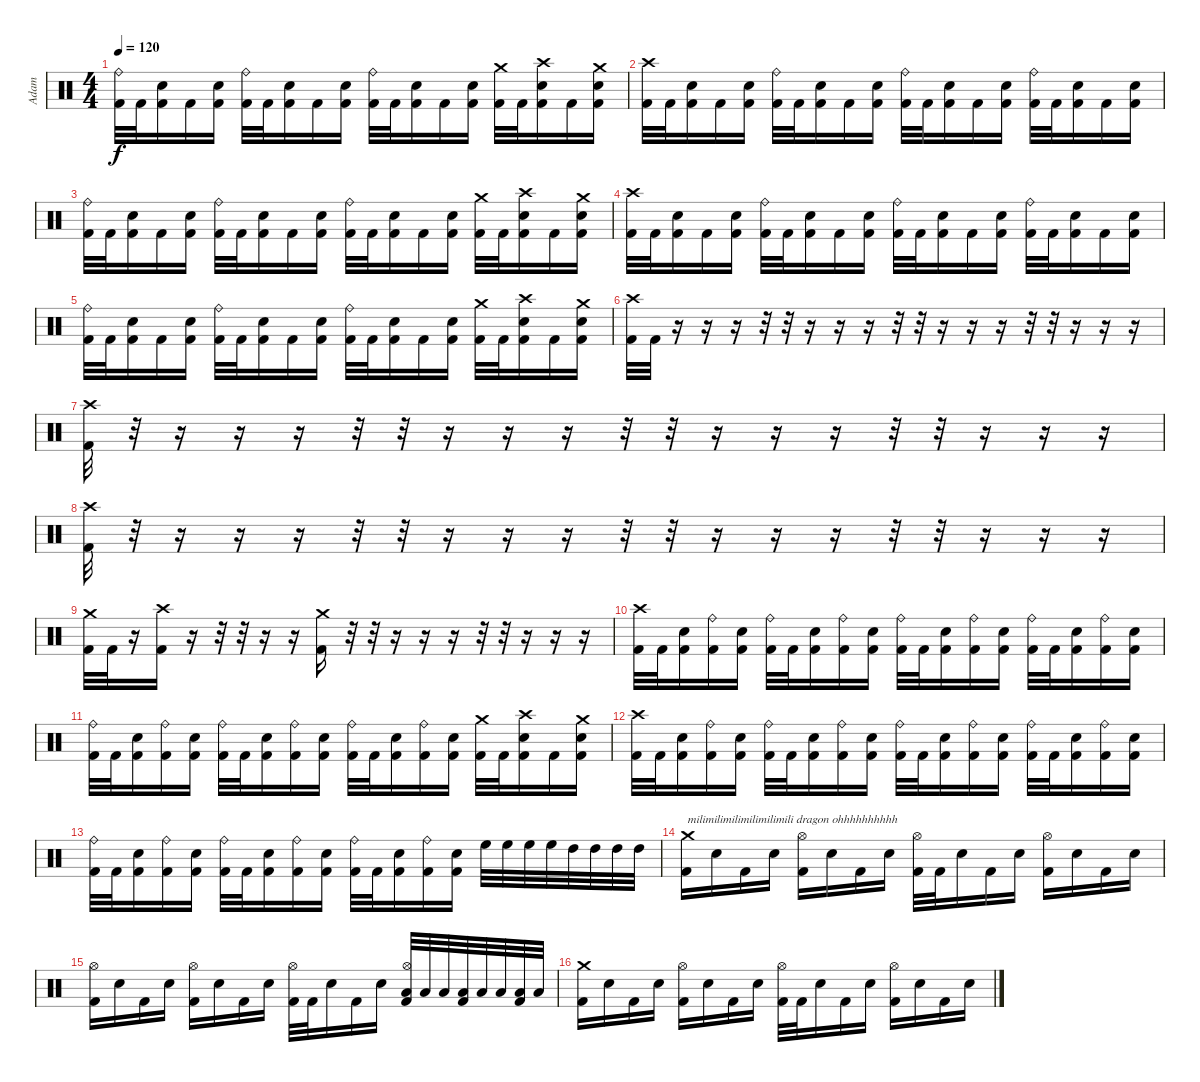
\track ("Adam" "Adam") {instrument percussion}
\staff {score}
\articulation defaults
\ts (4 4)
\tempo 120
\clef neutral
\ks c
("Ride (bell)" "Kick (hit) 2").32{dy f} "Kick (hit) 2".32 ("Electric Snare (hit)" "Kick (hit) 2").16 "Kick (hit) 2".16 ("Electric Snare (hit)" "Kick (hit) 2").16 ("Ride (bell)" "Kick (hit) 2").32 "Kick (hit) 2".32 ("Electric Snare (hit)" "Kick (hit) 2").16 "Kick (hit) 2".16 ("Electric Snare (hit)" "Kick (hit) 2").16 ("Ride (bell)" "Kick (hit) 2").32 "Kick (hit) 2".32 ("Electric Snare (hit)" "Kick (hit) 2").16 "Kick (hit) 2".16 ("Electric Snare (hit)" "Kick (hit) 2").16 ("Crash medium (hit)" "Kick (hit) 2").32 "Kick (hit) 2".32 ("Crash high (hit)" "Electric Snare (hit)" "Kick (hit) 2").16 "Kick (hit) 2".16 ("Crash medium (hit)" "Electric Snare (hit)" "Kick (hit) 2").16 |
("Crash high (hit)" "Kick (hit) 2").32 "Kick (hit) 2".32 ("Electric Snare (hit)" "Kick (hit) 2").16 "Kick (hit) 2".16 ("Electric Snare (hit)" "Kick (hit) 2").16 ("Ride (bell)" "Kick (hit) 2").32 "Kick (hit) 2".32 ("Electric Snare (hit)" "Kick (hit) 2").16 "Kick (hit) 2".16 ("Electric Snare (hit)" "Kick (hit) 2").16 ("Ride (bell)" "Kick (hit) 2").32 "Kick (hit) 2".32 ("Electric Snare (hit)" "Kick (hit) 2").16 "Kick (hit) 2".16 ("Electric Snare (hit)" "Kick (hit) 2").16 ("Ride (bell)" "Kick (hit) 2").32 "Kick (hit) 2".32 ("Electric Snare (hit)" "Kick (hit) 2").16 "Kick (hit) 2".16 ("Electric Snare (hit)" "Kick (hit) 2").16 |
("Ride (bell)" "Kick (hit) 2").32 "Kick (hit) 2".32 ("Electric Snare (hit)" "Kick (hit) 2").16 "Kick (hit) 2".16 ("Electric Snare (hit)" "Kick (hit) 2").16 ("Ride (bell)" "Kick (hit) 2").32 "Kick (hit) 2".32 ("Electric Snare (hit)" "Kick (hit) 2").16 "Kick (hit) 2".16 ("Electric Snare (hit)" "Kick (hit) 2").16 ("Ride (bell)" "Kick (hit) 2").32 "Kick (hit) 2".32 ("Electric Snare (hit)" "Kick (hit) 2").16 "Kick (hit) 2".16 ("Electric Snare (hit)" "Kick (hit) 2").16 ("Crash medium (hit)" "Kick (hit) 2").32 "Kick (hit) 2".32 ("Crash high (hit)" "Electric Snare (hit)" "Kick (hit) 2").16 "Kick (hit) 2".16 ("Crash medium (hit)" "Electric Snare (hit)" "Kick (hit) 2").16 |
("Crash high (hit)" "Kick (hit) 2").32 "Kick (hit) 2".32 ("Electric Snare (hit)" "Kick (hit) 2").16 "Kick (hit) 2".16 ("Electric Snare (hit)" "Kick (hit) 2").16 ("Ride (bell)" "Kick (hit) 2").32 "Kick (hit) 2".32 ("Electric Snare (hit)" "Kick (hit) 2").16 "Kick (hit) 2".16 ("Electric Snare (hit)" "Kick (hit) 2").16 ("Ride (bell)" "Kick (hit) 2").32 "Kick (hit) 2".32 ("Electric Snare (hit)" "Kick (hit) 2").16 "Kick (hit) 2".16 ("Electric Snare (hit)" "Kick (hit) 2").16 ("Ride (bell)" "Kick (hit) 2").32 "Kick (hit) 2".32 ("Electric Snare (hit)" "Kick (hit) 2").16 "Kick (hit) 2".16 ("Electric Snare (hit)" "Kick (hit) 2").16 |
("Ride (bell)" "Kick (hit) 2").32 "Kick (hit) 2".32 ("Electric Snare (hit)" "Kick (hit) 2").16 "Kick (hit) 2".16 ("Electric Snare (hit)" "Kick (hit) 2").16 ("Ride (bell)" "Kick (hit) 2").32 "Kick (hit) 2".32 ("Electric Snare (hit)" "Kick (hit) 2").16 "Kick (hit) 2".16 ("Electric Snare (hit)" "Kick (hit) 2").16 ("Ride (bell)" "Kick (hit) 2").32 "Kick (hit) 2".32 ("Electric Snare (hit)" "Kick (hit) 2").16 "Kick (hit) 2".16 ("Electric Snare (hit)" "Kick (hit) 2").16 ("Crash medium (hit)" "Kick (hit) 2").32 "Kick (hit) 2".32 ("Crash high (hit)" "Electric Snare (hit)" "Kick (hit) 2").16 "Kick (hit) 2".16 ("Crash medium (hit)" "Electric Snare (hit)" "Kick (hit) 2").16 |
("Crash high (hit)" "Kick (hit) 2").32 "Kick (hit) 2".32 r.16 r.16 r.16 r.32 r.32 r.16 r.16 r.16 r.32 r.32 r.16 r.16 r.16 r.32 r.32 r.16 r.16 r.16 |
("Crash high (hit)" "Kick (hit) 2").32 r.32 r.16 r.16 r.16 r.32 r.32 r.16 r.16 r.16 r.32 r.32 r.16 r.16 r.16 r.32 r.32 r.16 r.16 r.16 |
("Crash high (hit)" "Kick (hit) 2").32 r.32 r.16 r.16 r.16 r.32 r.32 r.16 r.16 r.16 r.32 r.32 r.16 r.16 r.16 r.32 r.32 r.16 r.16 r.16 |
("Crash medium (hit)" "Kick (hit) 2").32 "Kick (hit) 2".32 r.16 ("Crash high (hit)" "Kick (hit) 2").16 r.16 r.32 r.32 r.16 r.16 ("Crash medium (hit)" "Kick (hit) 2").16 r.32 r.32 r.16 r.16 r.16 r.32 r.32 r.16 r.16 r.16 |
("Crash high (hit)" "Kick (hit) 2").32 "Kick (hit) 2".32 ("Electric Snare (hit)" "Kick (hit) 2").16 ("Ride (bell)" "Kick (hit) 2").16 ("Electric Snare (hit)" "Kick (hit) 2").16 ("Ride (bell)" "Kick (hit) 2").32 "Kick (hit) 2".32 ("Electric Snare (hit)" "Kick (hit) 2").16 ("Ride (bell)" "Kick (hit) 2").16 ("Electric Snare (hit)" "Kick (hit) 2").16 ("Ride (bell)" "Kick (hit) 2").32 "Kick (hit) 2".32 ("Electric Snare (hit)" "Kick (hit) 2").16 ("Ride (bell)" "Kick (hit) 2").16 ("Electric Snare (hit)" "Kick (hit) 2").16 ("Ride (bell)" "Kick (hit) 2").32 "Kick (hit) 2".32 ("Electric Snare (hit)" "Kick (hit) 2").16 ("Ride (bell)" "Kick (hit) 2").16 ("Electric Snare (hit)" "Kick (hit) 2").16 |
("Ride (bell)" "Kick (hit) 2").32 "Kick (hit) 2".32 ("Electric Snare (hit)" "Kick (hit) 2").16 ("Ride (bell)" "Kick (hit) 2").16 ("Electric Snare (hit)" "Kick (hit) 2").16 ("Ride (bell)" "Kick (hit) 2").32 "Kick (hit) 2".32 ("Electric Snare (hit)" "Kick (hit) 2").16 ("Ride (bell)" "Kick (hit) 2").16 ("Electric Snare (hit)" "Kick (hit) 2").16 ("Ride (bell)" "Kick (hit) 2").32 "Kick (hit) 2".32 ("Electric Snare (hit)" "Kick (hit) 2").16 ("Ride (bell)" "Kick (hit) 2").16 ("Electric Snare (hit)" "Kick (hit) 2").16 ("Crash medium (hit)" "Kick (hit) 2").32 "Kick (hit) 2".32 ("Crash high (hit)" "Electric Snare (hit)" "Kick (hit) 2").16 "Kick (hit) 2".16 ("Crash medium (hit)" "Electric Snare (hit)" "Kick (hit) 2").16 |
("Crash high (hit)" "Kick (hit) 2").32 "Kick (hit) 2".32 ("Electric Snare (hit)" "Kick (hit) 2").16 ("Ride (bell)" "Kick (hit) 2").16 ("Electric Snare (hit)" "Kick (hit) 2").16 ("Ride (bell)" "Kick (hit) 2").32 "Kick (hit) 2".32 ("Electric Snare (hit)" "Kick (hit) 2").16 ("Ride (bell)" "Kick (hit) 2").16 ("Electric Snare (hit)" "Kick (hit) 2").16 ("Ride (bell)" "Kick (hit) 2").32 "Kick (hit) 2".32 ("Electric Snare (hit)" "Kick (hit) 2").16 ("Ride (bell)" "Kick (hit) 2").16 ("Electric Snare (hit)" "Kick (hit) 2").16 ("Ride (bell)" "Kick (hit) 2").32 "Kick (hit) 2".32 ("Electric Snare (hit)" "Kick (hit) 2").16 ("Ride (bell)" "Kick (hit) 2").16 ("Electric Snare (hit)" "Kick (hit) 2").16 |
("Ride (bell)" "Kick (hit) 2").32 "Kick (hit) 2".32 ("Electric Snare (hit)" "Kick (hit) 2").16 ("Ride (bell)" "Kick (hit) 2").16 ("Electric Snare (hit)" "Kick (hit) 2").16 ("Ride (bell)" "Kick (hit) 2").32 "Kick (hit) 2".32 ("Electric Snare (hit)" "Kick (hit) 2").16 ("Ride (bell)" "Kick (hit) 2").16 ("Electric Snare (hit)" "Kick (hit) 2").16 ("Ride (bell)" "Kick (hit) 2").32 "Kick (hit) 2".32 ("Electric Snare (hit)" "Kick (hit) 2").16 ("Ride (bell)" "Kick (hit) 2").16 ("Electric Snare (hit)" "Kick (hit) 2").16 "High Floor Tom (hit)".32 "High Floor Tom (hit)".32 "High Floor Tom (hit)".32 "High Floor Tom (hit)".32 "High Tom (hit)".32 "High Tom (hit)".32 "High Tom (hit)".32 "High Tom (hit)".32 |
("Crash medium (hit)" "Kick (hit) 2").16{txt "milimilimilimilimilimili dragon ohhhhhhhhhh"} "Electric Snare (hit)".16 "Kick (hit) 2".16 "Electric Snare (hit)".16 ("Hi-Hat (open)" "Kick (hit) 2").16 "Electric Snare (hit)".16 "Kick (hit) 2".16 "Electric Snare (hit)".16 ("Hi-Hat (open)" "Kick (hit) 2").32 "Kick (hit) 2".32 "Electric Snare (hit)".16 "Kick (hit) 2".16 "Electric Snare (hit)".16 ("Hi-Hat (open)" "Kick (hit) 2").16 "Electric Snare (hit)".16 "Kick (hit) 2".16 "Electric Snare (hit)".16 |
("Hi-Hat (open)" "Kick (hit) 2").16 "Electric Snare (hit)".16 "Kick (hit) 2".16 "Electric Snare (hit)".16 ("Hi-Hat (open)" "Kick (hit) 2").16 "Electric Snare (hit)".16 "Kick (hit) 2".16 "Electric Snare (hit)".16 ("Hi-Hat (open)" "Kick (hit) 2").32 "Kick (hit) 2".32 "Electric Snare (hit)".16 "Kick (hit) 2".16 "Electric Snare (hit)".16 ("Hi-Hat (open)" "Low Tom (hit)" "Kick (hit) 2").32 "Low Tom (hit)".32 "Low Tom (hit)".32 ("Low Tom (hit)" "Kick (hit) 2").32 "Low Tom (hit)".32 "Low Floor Tom (hit)".32 ("Low Floor Tom (hit)" "Kick (hit) 2").32 "Low Floor Tom (hit)".32 |
("Crash medium (hit)" "Kick (hit) 2").16 "Electric Snare (hit)".16 "Kick (hit) 2".16 "Electric Snare (hit)".16 ("Hi-Hat (open)" "Kick (hit) 2").16 "Electric Snare (hit)".16 "Kick (hit) 2".16 "Electric Snare (hit)".16 ("Hi-Hat (open)" "Kick (hit) 2").32 "Kick (hit) 2".32 "Electric Snare (hit)".16 "Kick (hit) 2".16 "Electric Snare (hit)".16 ("Hi-Hat (open)" "Kick (hit) 2").16 "Electric Snare (hit)".16 "Kick (hit) 2".16 "Electric Snare (hit)".16
